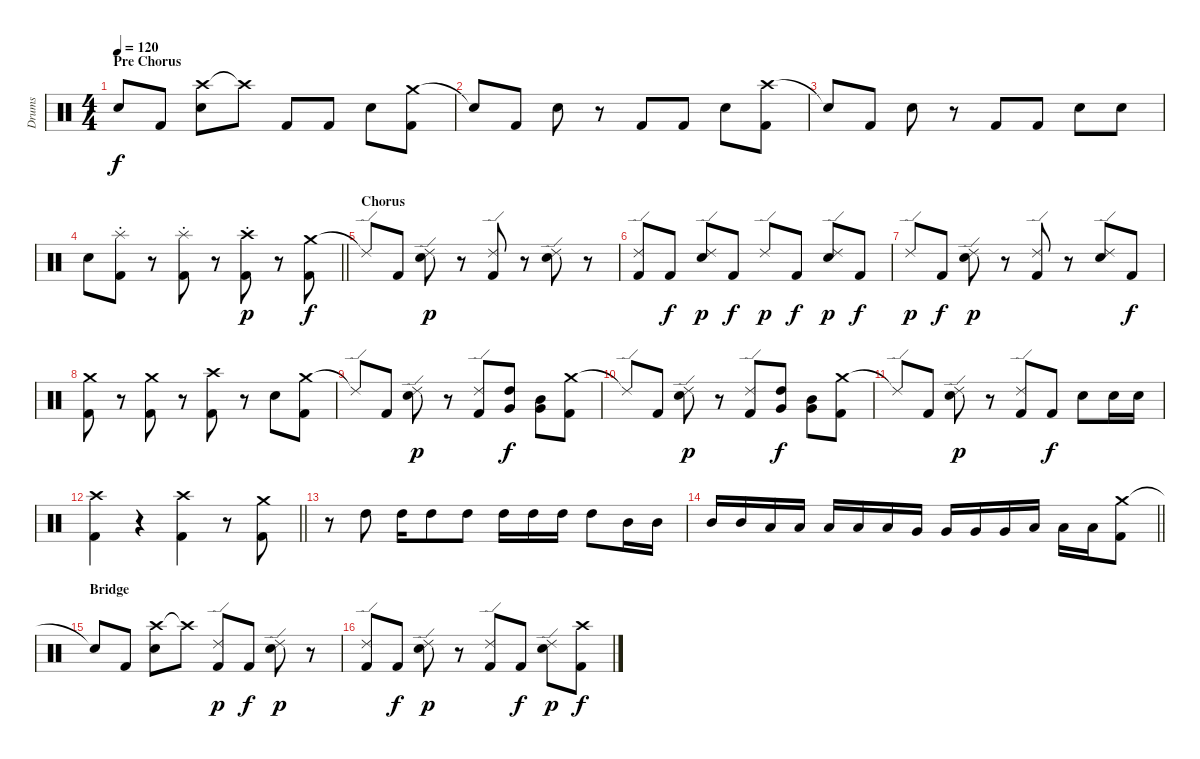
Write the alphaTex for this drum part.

\track ("Drums" "Drums") {instrument percussion}
\staff {score}
\articulation defaults
\ts (4 4)
\section ("" "Pre Chorus")
\tempo 120
\clef neutral
\ks c "Snare (hit)"{t}.8{dy f} "Kick (hit) 2".8
("Crash high (hit)" "Electric Snare (hit)").8 "Crash high (hit)"{t}.8 "Kick (hit) 2".8 "Kick (hit) 2".8 "Electric Snare (hit)".8 ("Crash medium (hit)" "Kick (hit) 2").8 |
"Snare (hit)"{t}.8 "Kick (hit) 2".8 "Electric Snare (hit)".8 r.8 "Kick (hit) 2".8 "Kick (hit) 2".8 "Electric Snare (hit)".8 ("Crash high (hit)" "Kick (hit) 2").8 |
"Snare (hit)"{t}.8 "Kick (hit) 2".8 "Electric Snare (hit)".8 r.8 "Kick (hit) 2".8 "Kick (hit) 2".8 "Electric Snare (hit)".8 "Electric Snare (hit)".8 |
\barLineRight lightlight "Electric Snare (hit)".8
("Splash (hit)"{st} "Kick (hit) 2").8 r.8 ("Splash (hit)"{st} "Kick (hit) 2").8 r.8 ("Crash high (hit)"{st} "Kick (hit) 2").8{dy p} r.8 ("Crash medium (hit)" "Kick (hit) 2").8{dy f} |
\section ("" "Chorus")
"Ride (edge) 2"{t}.8 "Kick (hit) 2".8 ("Ride (edge) 2" "Electric Snare (hit)").8{dy p} r.8 ("Ride (edge) 2" "Kick (hit) 2").8 r.8 ("Ride (edge) 2" "Electric Snare (hit)").8 r.8 |
("Ride (edge) 2" "Kick (hit) 2").8 "Kick (hit) 2".8{dy f} ("Ride (edge) 2" "Electric Snare (hit)").8{dy p} "Kick (hit) 2".8{dy f} "Ride (edge) 2".8{dy p} "Kick (hit) 2".8{dy f} ("Ride (edge) 2" "Electric Snare (hit)").8{dy p} "Kick (hit) 2".8{dy f} |
"Ride (edge) 2".8{dy p} "Kick (hit) 2".8{dy f} ("Ride (edge) 2" "Electric Snare (hit)").8{dy p} r.8 ("Ride (edge) 2" "Kick (hit) 2").8 r.8 ("Ride (edge) 2" "Electric Snare (hit)").8 "Kick (hit) 2".8{dy f} |
("Crash medium (hit)" "Kick (hit) 2").8 r.8 ("Crash medium (hit)" "Kick (hit) 2").8 r.8 ("Crash high (hit)" "Kick (hit) 2").8 r.8 "Electric Snare (hit)".8 ("Crash medium (hit)" "Kick (hit) 2").8 |
"Ride (edge) 2"{t}.8 "Kick (hit) 2".8 ("Ride (edge) 2" "Electric Snare (hit)").8{dy p} r.8 ("Ride (edge) 2" "Kick (hit) 2").8 ("High Tom (hit)" "Very Low Tom (hit)").8{dy f} ("Mid Tom (hit)" "Very Low Tom (hit)").8 ("Crash medium (hit)" "Kick (hit) 2").8 |
"Ride (edge) 2"{t}.8 "Kick (hit) 2".8 ("Ride (edge) 2" "Electric Snare (hit)").8{dy p} r.8 ("Ride (edge) 2" "Kick (hit) 2").8 ("High Tom (hit)" "Very Low Tom (hit)").8{dy f} ("Mid Tom (hit)" "Very Low Tom (hit)").8 ("Crash medium (hit)" "Kick (hit) 2").8 |
"Ride (edge) 2"{t}.8 "Kick (hit) 2".8 ("Ride (edge) 2" "Electric Snare (hit)").8{dy p} r.8 ("Ride (edge) 2" "Kick (hit) 2").8 "Kick (hit) 2".8{dy f} "Electric Snare (hit)".8 "Electric Snare (hit)".16 "Electric Snare (hit)".16 |
\barLineRight lightlight
("Crash high (hit)" "Kick (hit) 2").4 r.4 ("Crash high (hit)" "Kick (hit) 2").4 r.8 ("Crash medium (hit)" "Kick (hit) 2").8 |
r.8 "High Tom (hit)".8 "High Tom (hit)".16 "High Tom (hit)".8 "High Tom (hit)".8 "High Tom (hit)".16 "High Tom (hit)".16 "High Tom (hit)".16 "High Tom (hit)".8 "Mid Tom (hit)".16 "Mid Tom (hit)".16 |
\barLineRight lightlight "Mid Tom (hit)".16 "Mid Tom (hit)".16 "Low Tom (hit)".16 "Low Tom (hit)".16 "Low Tom (hit)".16 "Low Tom (hit)".16 "Low Tom (hit)".16 "Very Low Tom (hit)".16 "Very Low Tom (hit)".16 "Very Low Tom (hit)".16 "Very Low Tom (hit)".16 "Low Floor Tom (hit)".16 "Low Floor Tom (hit)".16 "Low Floor Tom (hit)".16
("Crash medium (hit)" "Kick (hit) 2").8 |
\section ("" "Bridge")
"Snare (hit)"{t}.8 "Kick (hit) 2".8 ("Crash high (hit)" "Electric Snare (hit)").8 "Crash high (hit)"{t}.8 ("Ride (edge) 2" "Kick (hit) 2").8{dy p} "Kick (hit) 2".8{dy f} ("Ride (edge) 2" "Electric Snare (hit)").8{dy p} r.8 |
("Ride (edge) 2" "Kick (hit) 2").8 "Kick (hit) 2".8{dy f} ("Ride (edge) 2" "Electric Snare (hit)").8{dy p} r.8 ("Ride (edge) 2" "Kick (hit) 2").8 "Kick (hit) 2".8{dy f} ("Ride (edge) 2" "Electric Snare (hit)").8{dy p} ("Crash high (hit)" "Kick (hit) 2").8{dy f}
